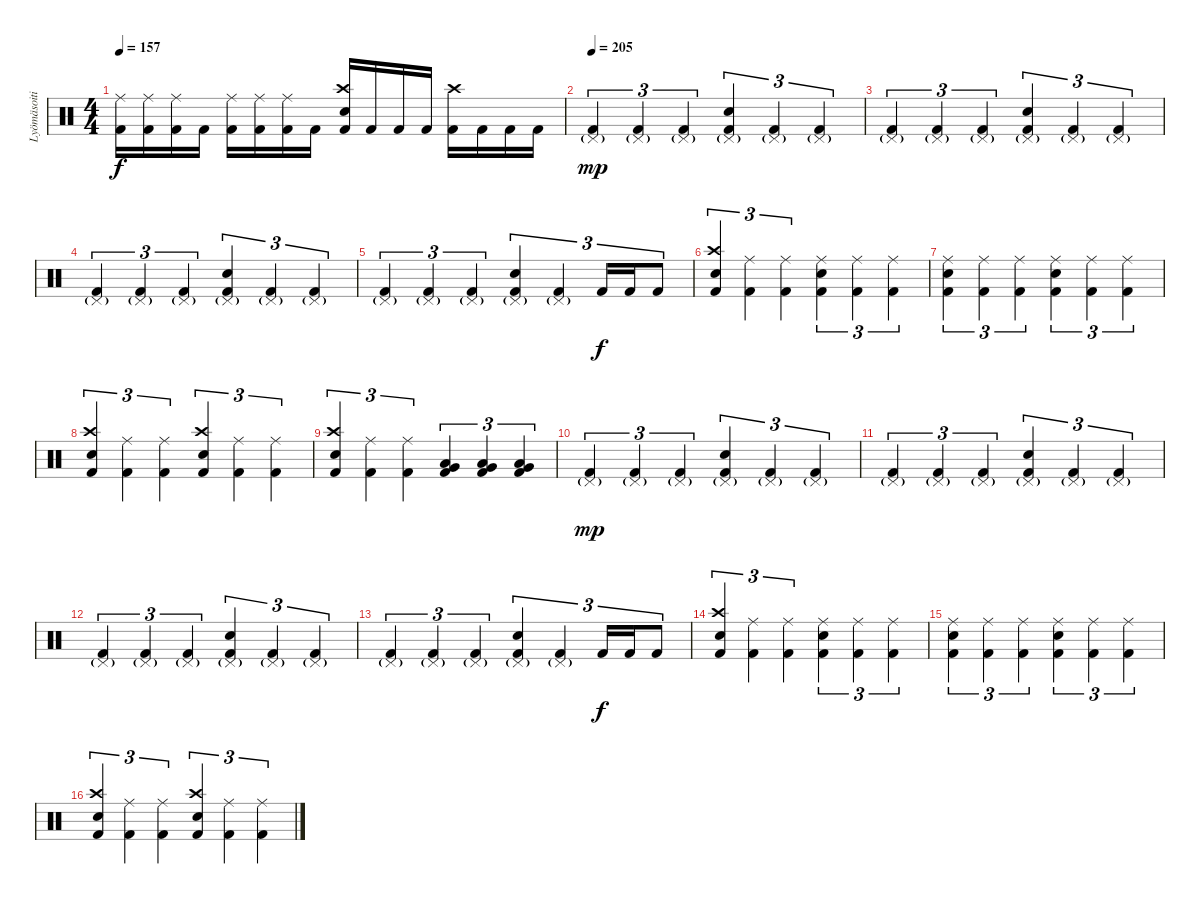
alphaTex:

\track ("Lyömäsoitin" "Lyömäsoiti") {instrument percussion}
\staff {score}
\articulation defaults
\ts (4 4)
\tempo 157
\clef neutral
\ks c
("Ride (middle)" "Kick (hit) 2").16{dy f} ("Ride (middle)" "Kick (hit) 2").16 ("Ride (middle)" "Kick (hit) 2").16 "Kick (hit) 2".16 ("Ride (middle)" "Kick (hit) 2").16 ("Ride (middle)" "Kick (hit) 2").16 ("Ride (middle)" "Kick (hit) 2").16 "Kick (hit) 2".16 ("Crash high (hit)" "Electric Snare (hit)" "Kick (hit) 2").16 "Kick (hit) 2".16 "Kick (hit) 2".16 "Kick (hit) 2".16 ("Crash high (hit)" "Kick (hit) 2").16 "Kick (hit) 2".16 "Kick (hit) 2".16 "Kick (hit) 2".16 |
\tempo 205
("Pedal Hi-Hat (hit)"{g} "Kick (hit) 2").4{tu (3 2) dy mp} ("Pedal Hi-Hat (hit)"{g} "Kick (hit) 2").4{tu (3 2)} ("Pedal Hi-Hat (hit)"{g} "Kick (hit) 2").4{tu (3 2)} ("Pedal Hi-Hat (hit)"{g} "Electric Snare (hit)" "Kick (hit) 2").4{tu (3 2)} ("Pedal Hi-Hat (hit)"{g} "Kick (hit) 2").4{tu (3 2)} ("Pedal Hi-Hat (hit)"{g} "Kick (hit) 2").4{tu (3 2)} |
("Pedal Hi-Hat (hit)"{g} "Kick (hit) 2").4{tu (3 2)} ("Pedal Hi-Hat (hit)"{g} "Kick (hit) 2").4{tu (3 2)} ("Pedal Hi-Hat (hit)"{g} "Kick (hit) 2").4{tu (3 2)} ("Pedal Hi-Hat (hit)"{g} "Electric Snare (hit)" "Kick (hit) 2").4{tu (3 2)} ("Pedal Hi-Hat (hit)"{g} "Kick (hit) 2").4{tu (3 2)} ("Pedal Hi-Hat (hit)"{g} "Kick (hit) 2").4{tu (3 2)} |
("Pedal Hi-Hat (hit)"{g} "Kick (hit) 2").4{tu (3 2)} ("Pedal Hi-Hat (hit)"{g} "Kick (hit) 2").4{tu (3 2)} ("Pedal Hi-Hat (hit)"{g} "Kick (hit) 2").4{tu (3 2)} ("Pedal Hi-Hat (hit)"{g} "Electric Snare (hit)" "Kick (hit) 2").4{tu (3 2)} ("Pedal Hi-Hat (hit)"{g} "Kick (hit) 2").4{tu (3 2)} ("Pedal Hi-Hat (hit)"{g} "Kick (hit) 2").4{tu (3 2)} |
("Pedal Hi-Hat (hit)"{g} "Kick (hit) 2").4{tu (3 2)} ("Pedal Hi-Hat (hit)"{g} "Kick (hit) 2").4{tu (3 2)} ("Pedal Hi-Hat (hit)"{g} "Kick (hit) 2").4{tu (3 2)} ("Pedal Hi-Hat (hit)"{g} "Electric Snare (hit)" "Kick (hit) 2").4{tu (3 2)} ("Pedal Hi-Hat (hit)"{g} "Kick (hit) 2").4{tu (3 2)} "Kick (hit) 2".16{tu (3 2) dy f} "Kick (hit) 2".16{tu (3 2)} "Kick (hit) 2".8{tu (3 2)} |
("Crash high (hit)" "Electric Snare (hit)" "Kick (hit) 2").4{tu (3 2)} ("Ride (middle)" "Kick (hit) 2").4{tu (3 2)} ("Ride (middle)" "Kick (hit) 2").4{tu (3 2)} ("Ride (middle)" "Electric Snare (hit)" "Kick (hit) 2").4{tu (3 2)} ("Ride (middle)" "Kick (hit) 2").4{tu (3 2)} ("Ride (middle)" "Kick (hit) 2").4{tu (3 2)} |
("Ride (middle)" "Electric Snare (hit)" "Kick (hit) 2").4{tu (3 2)} ("Ride (middle)" "Kick (hit) 2").4{tu (3 2)} ("Ride (middle)" "Kick (hit) 2").4{tu (3 2)} ("Ride (middle)" "Electric Snare (hit)" "Kick (hit) 2").4{tu (3 2)} ("Ride (middle)" "Kick (hit) 2").4{tu (3 2)} ("Ride (middle)" "Kick (hit) 2").4{tu (3 2)} |
("Crash high (hit)" "Electric Snare (hit)" "Kick (hit) 2").4{tu (3 2)} ("Ride (middle)" "Kick (hit) 2").4{tu (3 2)} ("Ride (middle)" "Kick (hit) 2").4{tu (3 2)} ("Crash high (hit)" "Electric Snare (hit)" "Kick (hit) 2").4{tu (3 2)} ("Ride (middle)" "Kick (hit) 2").4{tu (3 2)} ("Ride (middle)" "Kick (hit) 2").4{tu (3 2)} |
("Crash high (hit)" "Electric Snare (hit)" "Kick (hit) 2").4{tu (3 2)} ("Ride (middle)" "Kick (hit) 2").4{tu (3 2)} ("Ride (middle)" "Kick (hit) 2").4{tu (3 2)} ("Low Tom (hit)" "Very Low Tom (hit)" "Kick (hit) 2").4{tu (3 2)} ("Very Low Tom (hit)" "Low Floor Tom (hit)" "Kick (hit) 2").4{tu (3 2)} ("Very Low Tom (hit)" "Low Floor Tom (hit)" "Kick (hit) 2").4{tu (3 2)} |
("Pedal Hi-Hat (hit)"{g} "Kick (hit) 2").4{tu (3 2) dy mp} ("Pedal Hi-Hat (hit)"{g} "Kick (hit) 2").4{tu (3 2)} ("Pedal Hi-Hat (hit)"{g} "Kick (hit) 2").4{tu (3 2)} ("Pedal Hi-Hat (hit)"{g} "Electric Snare (hit)" "Kick (hit) 2").4{tu (3 2)} ("Pedal Hi-Hat (hit)"{g} "Kick (hit) 2").4{tu (3 2)} ("Pedal Hi-Hat (hit)"{g} "Kick (hit) 2").4{tu (3 2)} |
("Pedal Hi-Hat (hit)"{g} "Kick (hit) 2").4{tu (3 2)} ("Pedal Hi-Hat (hit)"{g} "Kick (hit) 2").4{tu (3 2)} ("Pedal Hi-Hat (hit)"{g} "Kick (hit) 2").4{tu (3 2)} ("Pedal Hi-Hat (hit)"{g} "Electric Snare (hit)" "Kick (hit) 2").4{tu (3 2)} ("Pedal Hi-Hat (hit)"{g} "Kick (hit) 2").4{tu (3 2)} ("Pedal Hi-Hat (hit)"{g} "Kick (hit) 2").4{tu (3 2)} |
("Pedal Hi-Hat (hit)"{g} "Kick (hit) 2").4{tu (3 2)} ("Pedal Hi-Hat (hit)"{g} "Kick (hit) 2").4{tu (3 2)} ("Pedal Hi-Hat (hit)"{g} "Kick (hit) 2").4{tu (3 2)} ("Pedal Hi-Hat (hit)"{g} "Electric Snare (hit)" "Kick (hit) 2").4{tu (3 2)} ("Pedal Hi-Hat (hit)"{g} "Kick (hit) 2").4{tu (3 2)} ("Pedal Hi-Hat (hit)"{g} "Kick (hit) 2").4{tu (3 2)} |
("Pedal Hi-Hat (hit)"{g} "Kick (hit) 2").4{tu (3 2)} ("Pedal Hi-Hat (hit)"{g} "Kick (hit) 2").4{tu (3 2)} ("Pedal Hi-Hat (hit)"{g} "Kick (hit) 2").4{tu (3 2)} ("Pedal Hi-Hat (hit)"{g} "Electric Snare (hit)" "Kick (hit) 2").4{tu (3 2)} ("Pedal Hi-Hat (hit)"{g} "Kick (hit) 2").4{tu (3 2)} "Kick (hit) 2".16{tu (3 2) dy f} "Kick (hit) 2".16{tu (3 2)} "Kick (hit) 2".8{tu (3 2)} |
("Crash high (hit)" "Electric Snare (hit)" "Kick (hit) 2").4{tu (3 2)} ("Ride (middle)" "Kick (hit) 2").4{tu (3 2)} ("Ride (middle)" "Kick (hit) 2").4{tu (3 2)} ("Ride (middle)" "Electric Snare (hit)" "Kick (hit) 2").4{tu (3 2)} ("Ride (middle)" "Kick (hit) 2").4{tu (3 2)} ("Ride (middle)" "Kick (hit) 2").4{tu (3 2)} |
("Ride (middle)" "Electric Snare (hit)" "Kick (hit) 2").4{tu (3 2)} ("Ride (middle)" "Kick (hit) 2").4{tu (3 2)} ("Ride (middle)" "Kick (hit) 2").4{tu (3 2)} ("Ride (middle)" "Electric Snare (hit)" "Kick (hit) 2").4{tu (3 2)} ("Ride (middle)" "Kick (hit) 2").4{tu (3 2)} ("Ride (middle)" "Kick (hit) 2").4{tu (3 2)} |
("Crash high (hit)" "Electric Snare (hit)" "Kick (hit) 2").4{tu (3 2)} ("Ride (middle)" "Kick (hit) 2").4{tu (3 2)} ("Ride (middle)" "Kick (hit) 2").4{tu (3 2)} ("Crash high (hit)" "Electric Snare (hit)" "Kick (hit) 2").4{tu (3 2)} ("Ride (middle)" "Kick (hit) 2").4{tu (3 2)} ("Ride (middle)" "Kick (hit) 2").4{tu (3 2)}
